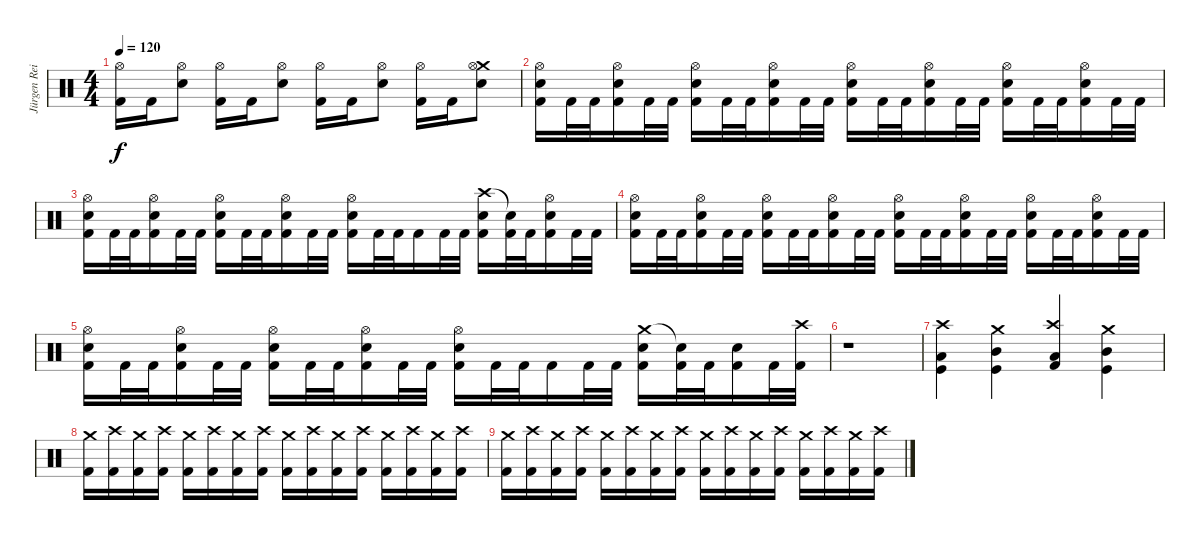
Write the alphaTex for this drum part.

\track ("Jürgen Reil" "Jürgen Rei") {instrument percussion}
\staff {score}
\articulation defaults
\ts (4 4)
\tempo 120
\clef neutral
\ks c
("Hi-Hat (open)" "Kick (hit) 2").16{dy f} "Kick (hit) 2".16 ("Hi-Hat (open)" "Electric Snare (hit)").8 ("Hi-Hat (open)" "Kick (hit) 2").16 "Kick (hit) 2".16 ("Hi-Hat (open)" "Electric Snare (hit)").8 ("Hi-Hat (open)" "Kick (hit) 2").16 "Kick (hit) 2".16 ("Hi-Hat (open)" "Electric Snare (hit)").8 ("Hi-Hat (open)" "Kick (hit) 2").16 "Kick (hit) 2".16 ("Crash medium (hit)" "Hi-Hat (open)" "Electric Snare (hit)").8 |
("Hi-Hat (open)" "Electric Snare (hit)" "Kick (hit) 2").16 "Kick (hit) 2".32 "Kick (hit) 2".32 ("Hi-Hat (open)" "Electric Snare (hit)" "Kick (hit) 2").16 "Kick (hit) 2".32 "Kick (hit) 2".32 ("Hi-Hat (open)" "Electric Snare (hit)" "Kick (hit) 2").16 "Kick (hit) 2".32 "Kick (hit) 2".32 ("Hi-Hat (open)" "Electric Snare (hit)" "Kick (hit) 2").16 "Kick (hit) 2".32 "Kick (hit) 2".32 ("Hi-Hat (open)" "Electric Snare (hit)" "Kick (hit) 2").16 "Kick (hit) 2".32 "Kick (hit) 2".32 ("Hi-Hat (open)" "Electric Snare (hit)" "Kick (hit) 2").16 "Kick (hit) 2".32 "Kick (hit) 2".32 ("Hi-Hat (open)" "Electric Snare (hit)" "Kick (hit) 2").16 "Kick (hit) 2".32 "Kick (hit) 2".32 ("Hi-Hat (open)" "Electric Snare (hit)" "Kick (hit) 2").16 "Kick (hit) 2".32 "Kick (hit) 2".32 |
("Hi-Hat (open)" "Electric Snare (hit)" "Kick (hit) 2").16 "Kick (hit) 2".32 "Kick (hit) 2".32 ("Hi-Hat (open)" "Electric Snare (hit)" "Kick (hit) 2").16 "Kick (hit) 2".32 "Kick (hit) 2".32 ("Hi-Hat (open)" "Electric Snare (hit)" "Kick (hit) 2").16 "Kick (hit) 2".32 "Kick (hit) 2".32 ("Hi-Hat (open)" "Electric Snare (hit)" "Kick (hit) 2").16 "Kick (hit) 2".32 "Kick (hit) 2".32 ("Hi-Hat (open)" "Electric Snare (hit)" "Kick (hit) 2").16 "Kick (hit) 2".32 "Kick (hit) 2".32 "Kick (hit) 2".16 "Kick (hit) 2".32 "Kick (hit) 2".32 ("Crash high (hit)" "Electric Snare (hit)" "Kick (hit) 2").16 ("Snare (hit)"{t} "Kick (hit) 2").32 "Kick (hit) 2".32 ("Hi-Hat (open)" "Electric Snare (hit)" "Kick (hit) 2").16 "Kick (hit) 2".32 "Kick (hit) 2".32 |
("Hi-Hat (open)" "Electric Snare (hit)" "Kick (hit) 2").16 "Kick (hit) 2".32 "Kick (hit) 2".32 ("Hi-Hat (open)" "Electric Snare (hit)" "Kick (hit) 2").16 "Kick (hit) 2".32 "Kick (hit) 2".32 ("Hi-Hat (open)" "Electric Snare (hit)" "Kick (hit) 2").16 "Kick (hit) 2".32 "Kick (hit) 2".32 ("Hi-Hat (open)" "Electric Snare (hit)" "Kick (hit) 2").16 "Kick (hit) 2".32 "Kick (hit) 2".32 ("Hi-Hat (open)" "Electric Snare (hit)" "Kick (hit) 2").16 "Kick (hit) 2".32 "Kick (hit) 2".32 ("Hi-Hat (open)" "Electric Snare (hit)" "Kick (hit) 2").16 "Kick (hit) 2".32 "Kick (hit) 2".32 ("Hi-Hat (open)" "Electric Snare (hit)" "Kick (hit) 2").16 "Kick (hit) 2".32 "Kick (hit) 2".32 ("Hi-Hat (open)" "Electric Snare (hit)" "Kick (hit) 2").16 "Kick (hit) 2".32 "Kick (hit) 2".32 |
("Hi-Hat (open)" "Electric Snare (hit)" "Kick (hit) 2").16 "Kick (hit) 2".32 "Kick (hit) 2".32 ("Hi-Hat (open)" "Electric Snare (hit)" "Kick (hit) 2").16 "Kick (hit) 2".32 "Kick (hit) 2".32 ("Hi-Hat (open)" "Electric Snare (hit)" "Kick (hit) 2").16 "Kick (hit) 2".32 "Kick (hit) 2".32 ("Hi-Hat (open)" "Electric Snare (hit)" "Kick (hit) 2").16 "Kick (hit) 2".32 "Kick (hit) 2".32 ("Hi-Hat (open)" "Electric Snare (hit)" "Kick (hit) 2").16 "Kick (hit) 2".32 "Kick (hit) 2".32 "Kick (hit) 2".16 "Kick (hit) 2".32 "Kick (hit) 2".32 ("Crash medium (hit)" "Electric Snare (hit)" "Kick (hit) 2").16 ("Snare (hit)"{t} "Kick (hit) 2").32 "Kick (hit) 2".32 ("Electric Snare (hit)" "Kick (hit) 2").16 "Kick (hit) 2".32 ("Crash high (hit)" "Kick (hit) 2").32 |
r.1 |
("Crash high (hit)" "Low Tom (hit)" "Kick (hit)").4 ("Crash medium (hit)" "Mid Tom (hit)" "Kick (hit)").4 ("Crash high (hit)" "Low Tom (hit)" "Kick (hit) 2").4 ("Crash medium (hit)" "Mid Tom (hit)" "Kick (hit)").4 |
("Crash medium (hit)" "Kick (hit) 2").16{volume 0} ("Crash high (hit)" "Kick (hit) 2").16 ("Crash medium (hit)" "Kick (hit) 2").16 ("Crash high (hit)" "Kick (hit) 2").16 ("Crash medium (hit)" "Kick (hit) 2").16 ("Crash high (hit)" "Kick (hit) 2").16 ("Crash medium (hit)" "Kick (hit) 2").16 ("Crash high (hit)" "Kick (hit) 2").16 ("Crash medium (hit)" "Kick (hit) 2").16 ("Crash high (hit)" "Kick (hit) 2").16 ("Crash medium (hit)" "Kick (hit) 2").16 ("Crash high (hit)" "Kick (hit) 2").16 ("Crash medium (hit)" "Kick (hit) 2").16 ("Crash high (hit)" "Kick (hit) 2").16 ("Crash medium (hit)" "Kick (hit) 2").16 ("Crash high (hit)" "Kick (hit) 2").16 |
("Crash medium (hit)" "Kick (hit) 2").16 ("Crash high (hit)" "Kick (hit) 2").16 ("Crash medium (hit)" "Kick (hit) 2").16 ("Crash high (hit)" "Kick (hit) 2").16 ("Crash medium (hit)" "Kick (hit) 2").16 ("Crash high (hit)" "Kick (hit) 2").16 ("Crash medium (hit)" "Kick (hit) 2").16 ("Crash high (hit)" "Kick (hit) 2").16 ("Crash medium (hit)" "Kick (hit) 2").16 ("Crash high (hit)" "Kick (hit) 2").16 ("Crash medium (hit)" "Kick (hit) 2").16 ("Crash high (hit)" "Kick (hit) 2").16 ("Crash medium (hit)" "Kick (hit) 2").16 ("Crash high (hit)" "Kick (hit) 2").16 ("Crash medium (hit)" "Kick (hit) 2").16 ("Crash high (hit)" "Kick (hit) 2").16
